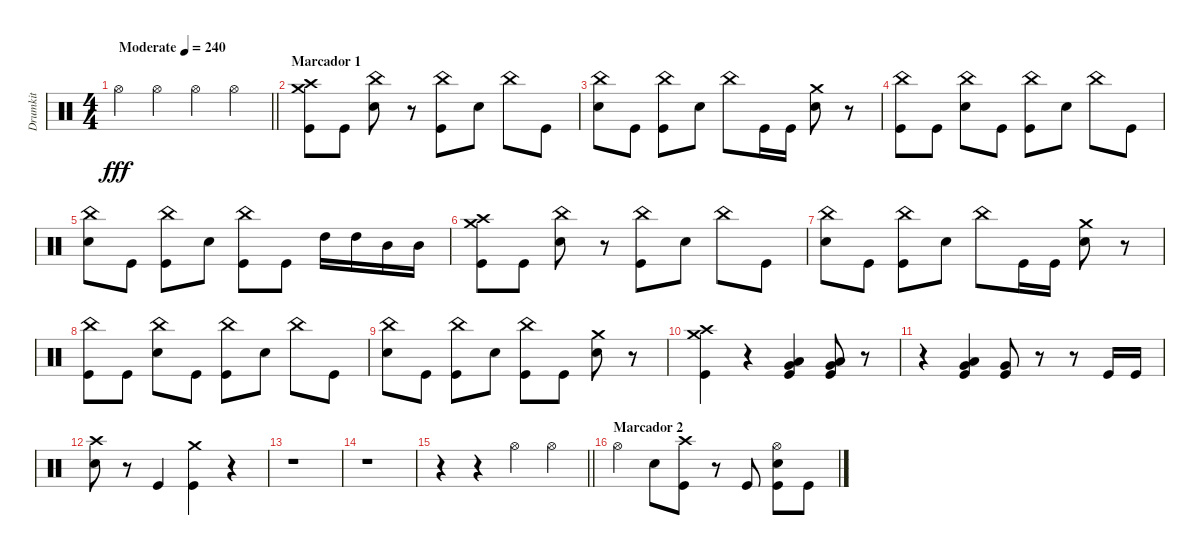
\track ("Drumkit" "Drumkit") {instrument percussion}
\staff {score}
\articulation defaults
\ts (4 4)
\tempo (240 "Moderate")
\clef neutral
\barLineRight lightlight
\ks c "Hi-Hat (open)".4{dy fff} "Hi-Hat (open)".4 "Hi-Hat (open)".4 "Hi-Hat (open)".4
|
\section ("" "Marcador 1")
("Crash medium (hit)" "Crash high (hit)" "Kick (hit)").8 "Kick (hit)".8 ("China (hit)" "Snare (hit) 2").8 r.8 ("China (hit)" "Kick (hit)").8 "Snare (hit) 2".8 "China (hit)".8 "Kick (hit)".8 |
("China (hit)" "Snare (hit) 2").8 "Kick (hit)".8 ("China (hit)" "Kick (hit)").8 "Snare (hit) 2".8 "China (hit)".8 "Kick (hit)".16 "Kick (hit)".16 ("Crash medium (hit)" "Snare (hit) 2").8 r.8 |
("China (hit)" "Kick (hit)").8 "Kick (hit)".8 ("China (hit)" "Snare (hit) 2").8 "Kick (hit)".8 ("China (hit)" "Kick (hit)").8 "Snare (hit) 2".8 "China (hit)".8 "Kick (hit)".8 |
("China (hit)" "Snare (hit) 2").8 "Kick (hit)".8 ("China (hit)" "Kick (hit)").8 "Snare (hit) 2".8 ("China (hit)" "Kick (hit)").8 "Kick (hit)".8 "High Tom (hit)".16 "High Tom (hit)".16 "Mid Tom (hit)".16 "Mid Tom (hit)".16 |
("Crash medium (hit)" "Crash high (hit)" "Kick (hit)").8 "Kick (hit)".8 ("China (hit)" "Snare (hit) 2").8 r.8 ("China (hit)" "Kick (hit)").8 "Snare (hit) 2".8 "China (hit)".8 "Kick (hit)".8 |
("China (hit)" "Snare (hit) 2").8 "Kick (hit)".8 ("China (hit)" "Kick (hit)").8 "Snare (hit) 2".8 "China (hit)".8 "Kick (hit)".16 "Kick (hit)".16 ("Crash medium (hit)" "Snare (hit) 2").8 r.8 |
("China (hit)" "Kick (hit)").8 "Kick (hit)".8 ("China (hit)" "Snare (hit) 2").8 "Kick (hit)".8 ("China (hit)" "Kick (hit)").8 "Snare (hit) 2".8 "China (hit)".8 "Kick (hit)".8 |
("China (hit)" "Snare (hit) 2").8 "Kick (hit)".8 ("China (hit)" "Kick (hit)").8 "Snare (hit) 2".8 ("China (hit)" "Kick (hit)").8 "Kick (hit)".8 ("Crash medium (hit)" "Snare (hit) 2").8 r.8 |
("Crash high (hit)" "Crash medium (hit)" "Kick (hit)").4 r.4 ("Low Tom (hit)" "Very Low Tom (hit)" "Kick (hit)").4 ("Low Tom (hit)" "Very Low Tom (hit)" "Kick (hit)").8 r.8 |
r.4 ("Low Tom (hit)" "Very Low Tom (hit)" "Kick (hit)").4 ("Very Low Tom (hit)" "Kick (hit)").8 r.8 r.8 "Kick (hit)".16 "Kick (hit)".16 |
("Crash high (hit)" "Snare (hit) 2").8 r.8 "Kick (hit)".4 ("Crash medium (hit)" "Kick (hit)").4 r.4 |
r.1 |
r.1 |
\barLineRight lightlight
r.4 r.4 "Hi-Hat (open)".4 "Hi-Hat (open)".4 |
\section ("" "Marcador 2")
"Hi-Hat (open)".4 "Snare (hit) 2".8 ("Crash high (hit)" "Kick (hit)").8 r.8 "Kick (hit)".8 ("Hi-Hat (open)" "Snare (hit) 2" "Kick (hit)").8 "Kick (hit)".8
